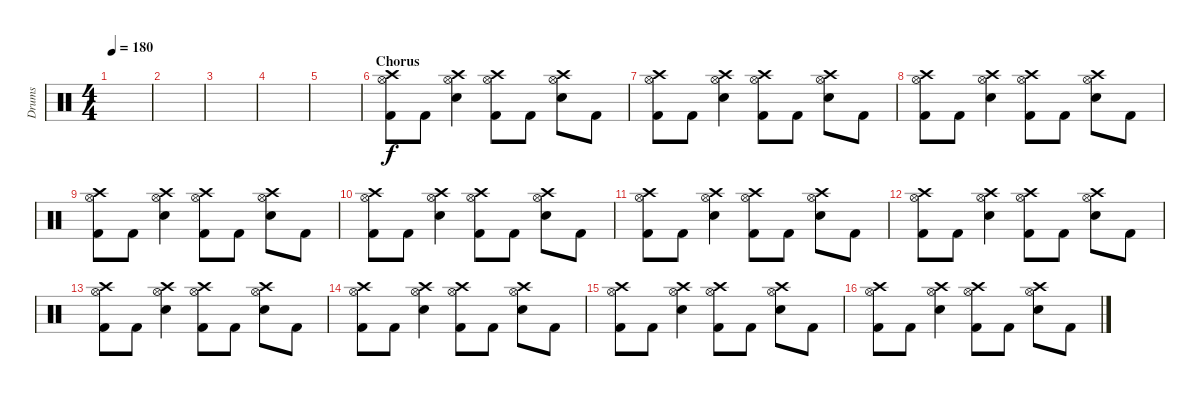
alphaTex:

\track ("Drums" "Drums") {instrument percussion}
\staff {score}
\articulation defaults
\ts (4 4)
\tempo 180
\clef neutral
\ks c
|
|
|
|
|
\section ("" "Chorus")
("Kick (hit) 2" "Hi-Hat (open)" "Crash high (hit)").8 "Kick (hit) 2".8 ("Snare (hit) 2" "Hi-Hat (open)" "Crash high (hit)").4 ("Hi-Hat (open)" "Crash high (hit)" "Kick (hit) 2").8 "Kick (hit) 2".8 ("Hi-Hat (open)" "Crash high (hit)" "Snare (hit) 2").8 "Kick (hit) 2".8 |
("Kick (hit) 2" "Hi-Hat (open)" "Crash high (hit)").8 "Kick (hit) 2".8 ("Snare (hit) 2" "Hi-Hat (open)" "Crash high (hit)").4 ("Hi-Hat (open)" "Crash high (hit)" "Kick (hit) 2").8 "Kick (hit) 2".8 ("Hi-Hat (open)" "Crash high (hit)" "Snare (hit) 2").8 "Kick (hit) 2".8 |
("Kick (hit) 2" "Hi-Hat (open)" "Crash high (hit)").8 "Kick (hit) 2".8 ("Snare (hit) 2" "Hi-Hat (open)" "Crash high (hit)").4 ("Hi-Hat (open)" "Crash high (hit)" "Kick (hit) 2").8 "Kick (hit) 2".8 ("Hi-Hat (open)" "Crash high (hit)" "Snare (hit) 2").8 "Kick (hit) 2".8 |
("Kick (hit) 2" "Hi-Hat (open)" "Crash high (hit)").8 "Kick (hit) 2".8 ("Snare (hit) 2" "Hi-Hat (open)" "Crash high (hit)").4 ("Hi-Hat (open)" "Crash high (hit)" "Kick (hit) 2").8 "Kick (hit) 2".8 ("Hi-Hat (open)" "Crash high (hit)" "Snare (hit) 2").8 "Kick (hit) 2".8 |
("Kick (hit) 2" "Hi-Hat (open)" "Crash high (hit)").8 "Kick (hit) 2".8 ("Snare (hit) 2" "Hi-Hat (open)" "Crash high (hit)").4 ("Hi-Hat (open)" "Crash high (hit)" "Kick (hit) 2").8 "Kick (hit) 2".8 ("Hi-Hat (open)" "Crash high (hit)" "Snare (hit) 2").8 "Kick (hit) 2".8 |
("Kick (hit) 2" "Hi-Hat (open)" "Crash high (hit)").8 "Kick (hit) 2".8 ("Snare (hit) 2" "Hi-Hat (open)" "Crash high (hit)").4 ("Hi-Hat (open)" "Crash high (hit)" "Kick (hit) 2").8 "Kick (hit) 2".8 ("Hi-Hat (open)" "Crash high (hit)" "Snare (hit) 2").8 "Kick (hit) 2".8 |
("Kick (hit) 2" "Hi-Hat (open)" "Crash high (hit)").8 "Kick (hit) 2".8 ("Snare (hit) 2" "Hi-Hat (open)" "Crash high (hit)").4 ("Hi-Hat (open)" "Crash high (hit)" "Kick (hit) 2").8 "Kick (hit) 2".8 ("Hi-Hat (open)" "Crash high (hit)" "Snare (hit) 2").8 "Kick (hit) 2".8 |
("Kick (hit) 2" "Hi-Hat (open)" "Crash high (hit)").8 "Kick (hit) 2".8 ("Snare (hit) 2" "Hi-Hat (open)" "Crash high (hit)").4 ("Hi-Hat (open)" "Crash high (hit)" "Kick (hit) 2").8 "Kick (hit) 2".8 ("Hi-Hat (open)" "Crash high (hit)" "Snare (hit) 2").8 "Kick (hit) 2".8 |
("Kick (hit) 2" "Hi-Hat (open)" "Crash high (hit)").8 "Kick (hit) 2".8 ("Snare (hit) 2" "Hi-Hat (open)" "Crash high (hit)").4 ("Hi-Hat (open)" "Crash high (hit)" "Kick (hit) 2").8 "Kick (hit) 2".8 ("Hi-Hat (open)" "Crash high (hit)" "Snare (hit) 2").8 "Kick (hit) 2".8 |
("Kick (hit) 2" "Hi-Hat (open)" "Crash high (hit)").8 "Kick (hit) 2".8 ("Snare (hit) 2" "Hi-Hat (open)" "Crash high (hit)").4 ("Hi-Hat (open)" "Crash high (hit)" "Kick (hit) 2").8 "Kick (hit) 2".8 ("Hi-Hat (open)" "Crash high (hit)" "Snare (hit) 2").8 "Kick (hit) 2".8 |
("Kick (hit) 2" "Hi-Hat (open)" "Crash high (hit)").8 "Kick (hit) 2".8 ("Snare (hit) 2" "Hi-Hat (open)" "Crash high (hit)").4 ("Hi-Hat (open)" "Crash high (hit)" "Kick (hit) 2").8 "Kick (hit) 2".8 ("Hi-Hat (open)" "Crash high (hit)" "Snare (hit) 2").8 "Kick (hit) 2".8
